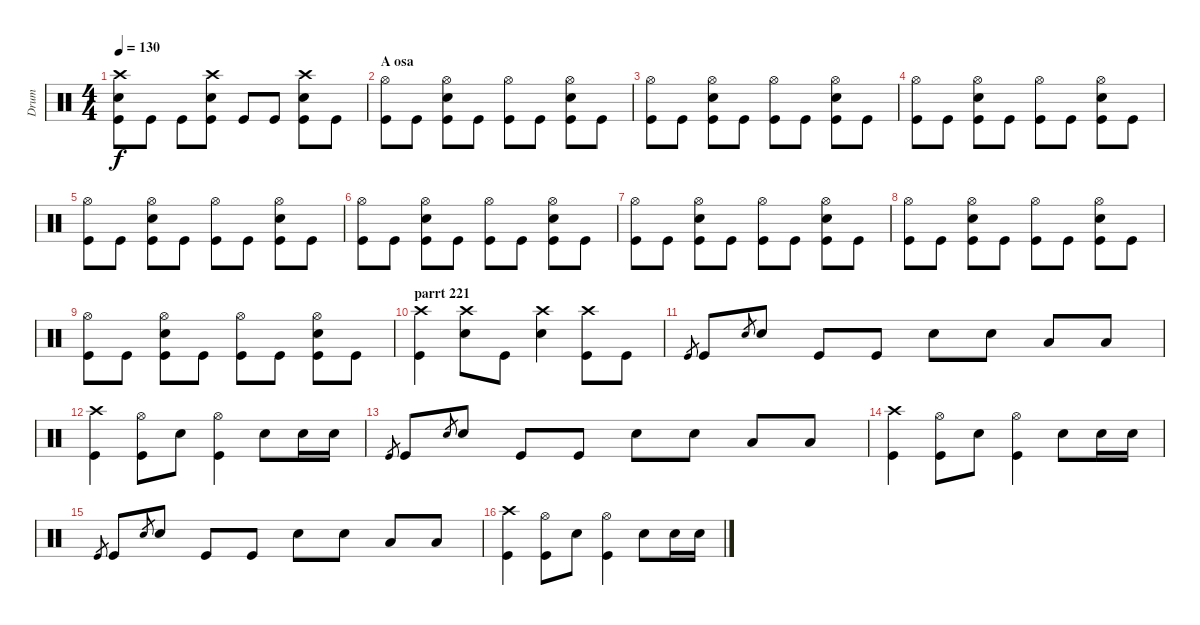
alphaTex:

\track ("Drum" "Drum") {instrument percussion}
\staff {score}
\articulation defaults
\ts (4 4)
\tempo 130
\clef neutral
\ks c
("Crash high (hit)" "Electric Snare (hit)" "Kick (hit)").8{dy f} "Kick (hit)".8 "Kick (hit)".8 ("Crash high (hit)" "Electric Snare (hit)" "Kick (hit)").8 "Kick (hit)".8 "Kick (hit)".8 ("Crash high (hit)" "Electric Snare (hit)" "Kick (hit)").8 "Kick (hit)".8 |
\section ("" "A osa")
("Hi-Hat (open)" "Kick (hit)").8 "Kick (hit)".8 ("Hi-Hat (open)" "Electric Snare (hit)" "Kick (hit)").8 "Kick (hit)".8 ("Hi-Hat (open)" "Kick (hit)").8 "Kick (hit)".8 ("Electric Snare (hit)" "Hi-Hat (open)" "Kick (hit)").8 "Kick (hit)".8 |
("Hi-Hat (open)" "Kick (hit)").8 "Kick (hit)".8 ("Hi-Hat (open)" "Electric Snare (hit)" "Kick (hit)").8 "Kick (hit)".8 ("Hi-Hat (open)" "Kick (hit)").8 "Kick (hit)".8 ("Electric Snare (hit)" "Hi-Hat (open)" "Kick (hit)").8 "Kick (hit)".8 |
("Hi-Hat (open)" "Kick (hit)").8 "Kick (hit)".8 ("Hi-Hat (open)" "Electric Snare (hit)" "Kick (hit)").8 "Kick (hit)".8 ("Hi-Hat (open)" "Kick (hit)").8 "Kick (hit)".8 ("Electric Snare (hit)" "Hi-Hat (open)" "Kick (hit)").8 "Kick (hit)".8 |
("Hi-Hat (open)" "Kick (hit)").8 "Kick (hit)".8 ("Hi-Hat (open)" "Electric Snare (hit)" "Kick (hit)").8 "Kick (hit)".8 ("Hi-Hat (open)" "Kick (hit)").8 "Kick (hit)".8 ("Electric Snare (hit)" "Hi-Hat (open)" "Kick (hit)").8 "Kick (hit)".8 |
("Hi-Hat (open)" "Kick (hit)").8 "Kick (hit)".8 ("Hi-Hat (open)" "Electric Snare (hit)" "Kick (hit)").8 "Kick (hit)".8 ("Hi-Hat (open)" "Kick (hit)").8 "Kick (hit)".8 ("Electric Snare (hit)" "Hi-Hat (open)" "Kick (hit)").8 "Kick (hit)".8 |
("Hi-Hat (open)" "Kick (hit)").8 "Kick (hit)".8 ("Hi-Hat (open)" "Electric Snare (hit)" "Kick (hit)").8 "Kick (hit)".8 ("Hi-Hat (open)" "Kick (hit)").8 "Kick (hit)".8 ("Electric Snare (hit)" "Hi-Hat (open)" "Kick (hit)").8 "Kick (hit)".8 |
("Hi-Hat (open)" "Kick (hit)").8 "Kick (hit)".8 ("Hi-Hat (open)" "Electric Snare (hit)" "Kick (hit)").8 "Kick (hit)".8 ("Hi-Hat (open)" "Kick (hit)").8 "Kick (hit)".8 ("Electric Snare (hit)" "Hi-Hat (open)" "Kick (hit)").8 "Kick (hit)".8 |
("Hi-Hat (open)" "Kick (hit)").8 "Kick (hit)".8 ("Hi-Hat (open)" "Electric Snare (hit)" "Kick (hit)").8 "Kick (hit)".8 ("Hi-Hat (open)" "Kick (hit)").8 "Kick (hit)".8 ("Electric Snare (hit)" "Hi-Hat (open)" "Kick (hit)").8 "Kick (hit)".8 |
\section ("" "parrt 221")
("Crash high (hit)" "Kick (hit)").4 ("Crash high (hit)" "Electric Snare (hit)").8 "Kick (hit)".8 ("Crash high (hit)" "Electric Snare (hit)").4 ("Crash high (hit)" "Kick (hit)").8 "Kick (hit)".8 |
"Kick (hit)".8{gr} "Kick (hit)".8 "Electric Snare (hit)".8{gr} "Electric Snare (hit)".8 "Kick (hit)".8 "Kick (hit)".8 "Electric Snare (hit)".8 "Electric Snare (hit)".8 "Low Tom (hit)".8 "Low Tom (hit)".8 |
("Crash high (hit)" "Kick (hit)").4 ("Hi-Hat (open)" "Kick (hit)").8 "Electric Snare (hit)".8 ("Hi-Hat (open)" "Kick (hit)").4 "Electric Snare (hit)".8 "Electric Snare (hit)".16 "Electric Snare (hit)".16 |
"Kick (hit)".8{gr} "Kick (hit)".8 "Electric Snare (hit)".8{gr} "Electric Snare (hit)".8 "Kick (hit)".8 "Kick (hit)".8 "Electric Snare (hit)".8 "Electric Snare (hit)".8 "Low Tom (hit)".8 "Low Tom (hit)".8 |
("Crash high (hit)" "Kick (hit)").4 ("Hi-Hat (open)" "Kick (hit)").8 "Electric Snare (hit)".8 ("Hi-Hat (open)" "Kick (hit)").4 "Electric Snare (hit)".8 "Electric Snare (hit)".16 "Electric Snare (hit)".16 |
"Kick (hit)".8{gr} "Kick (hit)".8 "Electric Snare (hit)".8{gr} "Electric Snare (hit)".8 "Kick (hit)".8 "Kick (hit)".8 "Electric Snare (hit)".8 "Electric Snare (hit)".8 "Low Tom (hit)".8 "Low Tom (hit)".8 |
("Crash high (hit)" "Kick (hit)").4 ("Hi-Hat (open)" "Kick (hit)").8 "Electric Snare (hit)".8 ("Hi-Hat (open)" "Kick (hit)").4 "Electric Snare (hit)".8 "Electric Snare (hit)".16 "Electric Snare (hit)".16
